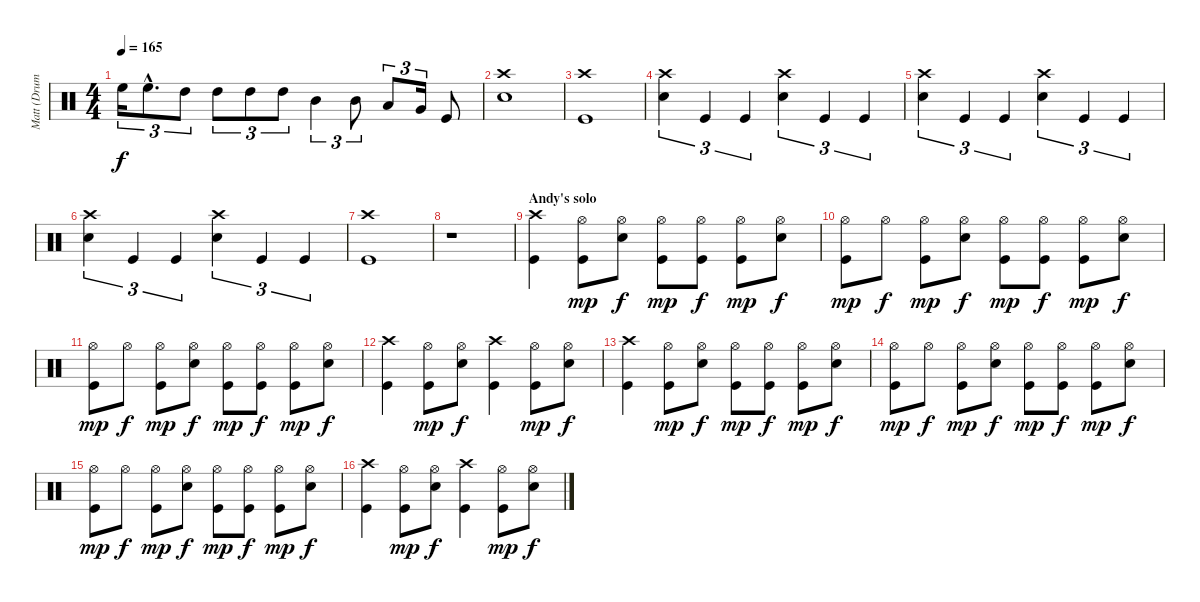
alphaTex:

\track ("Matt (Drums)" "Matt (Drum") {instrument percussion}
\staff {score}
\articulation defaults
\ts (4 4)
\tempo 165
\clef neutral
\ks c "High Floor Tom (hit)".16{tu (3 2) dy f} "High Floor Tom (hit)"{hac}.8{d tu (3 2)} "High Tom (hit)".8{tu (3 2)} "High Tom (hit)".8{tu (3 2)} "High Tom (hit)".8{tu (3 2)} "High Tom (hit)".8{tu (3 2)} "Mid Tom (hit)".4{tu (3 2)} "Mid Tom (hit)".8{tu (3 2)} "Low Tom (hit)".8{tu (3 2)} "Very Low Tom (hit)".16{tu (3 2)} "Kick (hit)".8
|
("Crash high (hit)" "Electric Snare (hit)").1 |
("Crash high (hit)" "Kick (hit)").1 |
("Crash high (hit)" "Electric Snare (hit)").4{tu (3 2)} "Kick (hit)".4{tu (3 2)} "Kick (hit)".4{tu (3 2)} ("Crash high (hit)" "Electric Snare (hit)").4{tu (3 2)} "Kick (hit)".4{tu (3 2)} "Kick (hit)".4{tu (3 2)} |
("Crash high (hit)" "Electric Snare (hit)").4{tu (3 2)} "Kick (hit)".4{tu (3 2)} "Kick (hit)".4{tu (3 2)} ("Crash high (hit)" "Electric Snare (hit)").4{tu (3 2)} "Kick (hit)".4{tu (3 2)} "Kick (hit)".4{tu (3 2)} |
("Crash high (hit)" "Electric Snare (hit)").4{tu (3 2)} "Kick (hit)".4{tu (3 2)} "Kick (hit)".4{tu (3 2)} ("Crash high (hit)" "Electric Snare (hit)").4{tu (3 2)} "Kick (hit)".4{tu (3 2)} "Kick (hit)".4{tu (3 2)} |
("Crash high (hit)" "Kick (hit)").1 |
r.1 |
\section ("" "Andy's solo")
("Crash high (hit)" "Kick (hit)").4 ("Hi-Hat (open)" "Kick (hit)").8{dy mp} ("Hi-Hat (open)" "Electric Snare (hit)").8{dy f} ("Hi-Hat (open)" "Kick (hit)").8{dy mp} ("Hi-Hat (open)" "Kick (hit)").8{dy f} ("Hi-Hat (open)" "Kick (hit)").8{dy mp} ("Hi-Hat (open)" "Electric Snare (hit)").8{dy f} |
("Hi-Hat (open)" "Kick (hit)").8{dy mp} "Hi-Hat (open)".8{dy f} ("Hi-Hat (open)" "Kick (hit)").8{dy mp} ("Hi-Hat (open)" "Electric Snare (hit)").8{dy f} ("Hi-Hat (open)" "Kick (hit)").8{dy mp} ("Hi-Hat (open)" "Kick (hit)").8{dy f} ("Hi-Hat (open)" "Kick (hit)").8{dy mp} ("Hi-Hat (open)" "Electric Snare (hit)").8{dy f} |
("Hi-Hat (open)" "Kick (hit)").8{dy mp} "Hi-Hat (open)".8{dy f} ("Hi-Hat (open)" "Kick (hit)").8{dy mp} ("Hi-Hat (open)" "Electric Snare (hit)").8{dy f} ("Hi-Hat (open)" "Kick (hit)").8{dy mp} ("Hi-Hat (open)" "Kick (hit)").8{dy f} ("Hi-Hat (open)" "Kick (hit)").8{dy mp} ("Hi-Hat (open)" "Electric Snare (hit)").8{dy f} |
("Crash high (hit)" "Kick (hit)").4 ("Hi-Hat (open)" "Kick (hit)").8{dy mp} ("Hi-Hat (open)" "Electric Snare (hit)").8{dy f} ("Crash high (hit)" "Kick (hit)").4 ("Hi-Hat (open)" "Kick (hit)").8{dy mp} ("Hi-Hat (open)" "Electric Snare (hit)").8{dy f} |
("Crash high (hit)" "Kick (hit)").4 ("Hi-Hat (open)" "Kick (hit)").8{dy mp} ("Hi-Hat (open)" "Electric Snare (hit)").8{dy f} ("Hi-Hat (open)" "Kick (hit)").8{dy mp} ("Hi-Hat (open)" "Kick (hit)").8{dy f} ("Hi-Hat (open)" "Kick (hit)").8{dy mp} ("Hi-Hat (open)" "Electric Snare (hit)").8{dy f} |
("Hi-Hat (open)" "Kick (hit)").8{dy mp} "Hi-Hat (open)".8{dy f} ("Hi-Hat (open)" "Kick (hit)").8{dy mp} ("Hi-Hat (open)" "Electric Snare (hit)").8{dy f} ("Hi-Hat (open)" "Kick (hit)").8{dy mp} ("Hi-Hat (open)" "Kick (hit)").8{dy f} ("Hi-Hat (open)" "Kick (hit)").8{dy mp} ("Hi-Hat (open)" "Electric Snare (hit)").8{dy f} |
("Hi-Hat (open)" "Kick (hit)").8{dy mp} "Hi-Hat (open)".8{dy f} ("Hi-Hat (open)" "Kick (hit)").8{dy mp} ("Hi-Hat (open)" "Electric Snare (hit)").8{dy f} ("Hi-Hat (open)" "Kick (hit)").8{dy mp} ("Hi-Hat (open)" "Kick (hit)").8{dy f} ("Hi-Hat (open)" "Kick (hit)").8{dy mp} ("Hi-Hat (open)" "Electric Snare (hit)").8{dy f} |
("Crash high (hit)" "Kick (hit)").4 ("Hi-Hat (open)" "Kick (hit)").8{dy mp} ("Hi-Hat (open)" "Electric Snare (hit)").8{dy f} ("Crash high (hit)" "Kick (hit)").4 ("Hi-Hat (open)" "Kick (hit)").8{dy mp} ("Hi-Hat (open)" "Electric Snare (hit)").8{dy f}
